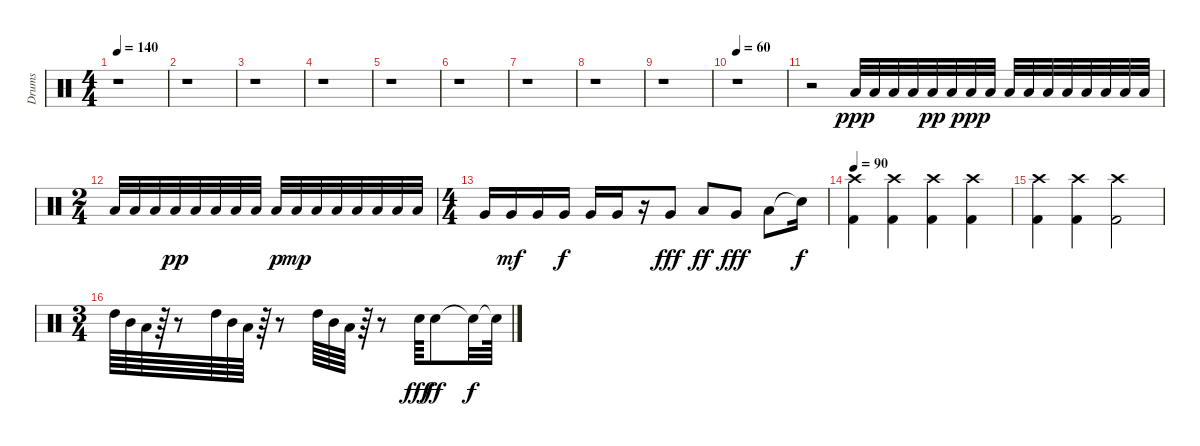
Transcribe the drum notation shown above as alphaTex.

\track ("Drums" "Drums") {instrument percussion}
\staff {score}
\articulation defaults
\ts (4 4)
\tempo 140
\clef neutral
\ks c
r.1{dy f} |
r.1 |
r.1 |
r.1 |
r.1 |
r.1 |
r.1 |
r.1 |
r.1 |
\tempo 60
r.1 |
r.2 "Low Tom (hit)".32{dy ppp volume 10} "Low Tom (hit)".32 "Low Tom (hit)".32 "Low Tom (hit)".32 "Low Tom (hit)".32{dy pp} "Low Tom (hit)".32 "Low Tom (hit)".32{dy ppp} "Low Tom (hit)".32 "Low Tom (hit)".32 "Low Tom (hit)".32 "Low Tom (hit)".32 "Low Tom (hit)".32 "Low Tom (hit)".32 "Low Tom (hit)".32 "Low Tom (hit)".32 "Low Tom (hit)".32 |
\ts (2 4)
"Low Tom (hit)".32{volume 13} "Low Tom (hit)".32 "Low Tom (hit)".32 "Low Tom (hit)".32{dy pp} "Low Tom (hit)".32 "Low Tom (hit)".32 "Low Tom (hit)".32 "Low Tom (hit)".32 "Low Tom (hit)".32{dy p} "Low Tom (hit)".32{dy mp} "Low Tom (hit)".32 "Low Tom (hit)".32 "Low Tom (hit)".32 "Low Tom (hit)".32 "Low Tom (hit)".32 "Low Tom (hit)".32 |
\ts (4 4)
"Very Low Tom (hit)".16 "Very Low Tom (hit)".16{dy mf} "Very Low Tom (hit)".16 "Very Low Tom (hit)".16{dy f} "Very Low Tom (hit)".16 "Very Low Tom (hit)".16 r.16 "Very Low Tom (hit)".8{dy fff} "Low Floor Tom (hit)".8{dy ff} "Very Low Tom (hit)".8{dy fff} "Low Floor Tom (hit)".8 "Snare (hit)"{t}.16{dy f} |
\tempo 90
("Crash high (hit)" "Kick (hit) 2").4 ("Crash high (hit)" "Kick (hit) 2").4 ("Crash high (hit)" "Kick (hit) 2").4 ("Crash high (hit)" "Kick (hit) 2").4 |
("Crash high (hit)" "Kick (hit) 2").4 ("Crash high (hit)" "Kick (hit) 2").4 ("Crash high (hit)" "Kick (hit) 2").2 |
\ts (3 4)
"High Tom (hit)".64 "Mid Tom (hit)".64 "Low Tom (hit)".64 r.64 r.8 "High Tom (hit)".64 "Mid Tom (hit)".64 "Low Tom (hit)".64 r.64 r.8 "High Tom (hit)".64 "Mid Tom (hit)".64 "Low Tom (hit)".64 r.64 r.8 "Snare (hit) 2".64{dy fff} "Snare (hit) 2".8{dy ff} "Snare (hit)"{t}.32{dy f} "Snare (hit)"{t}.64
